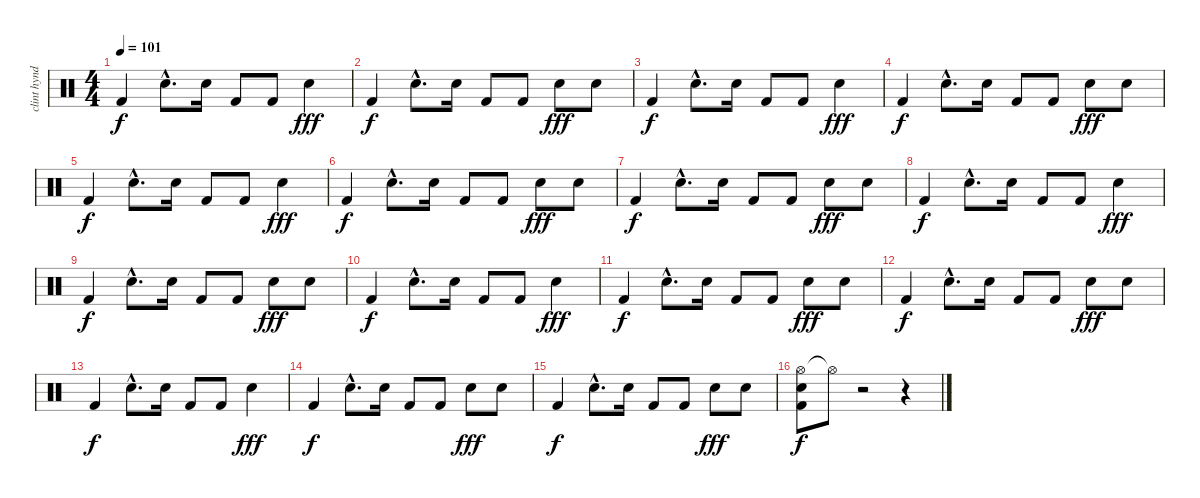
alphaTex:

\track ("clint hyndman" "clint hynd") {instrument percussion}
\staff {score}
\articulation defaults
\ts (4 4)
\tempo 101
\clef neutral
\ks c "Kick (hit) 2".4{dy f} "Electric Snare (hit)"{hac}.8{d} "Electric Snare (hit)".16 "Kick (hit) 2".8 "Kick (hit) 2".8 "Electric Snare (hit)".4{dy fff}
|
"Kick (hit) 2".4{dy f} "Electric Snare (hit)"{hac}.8{d} "Electric Snare (hit)".16 "Kick (hit) 2".8 "Kick (hit) 2".8 "Electric Snare (hit)".8{dy fff} "Electric Snare (hit)".8 |
"Kick (hit) 2".4{dy f} "Electric Snare (hit)"{hac}.8{d} "Electric Snare (hit)".16 "Kick (hit) 2".8 "Kick (hit) 2".8 "Electric Snare (hit)".4{dy fff} |
"Kick (hit) 2".4{dy f} "Electric Snare (hit)"{hac}.8{d} "Electric Snare (hit)".16 "Kick (hit) 2".8 "Kick (hit) 2".8 "Electric Snare (hit)".8{dy fff} "Electric Snare (hit)".8 |
"Kick (hit) 2".4{dy f} "Electric Snare (hit)"{hac}.8{d} "Electric Snare (hit)".16 "Kick (hit) 2".8 "Kick (hit) 2".8 "Electric Snare (hit)".4{dy fff} |
"Kick (hit) 2".4{dy f} "Electric Snare (hit)"{hac}.8{d} "Electric Snare (hit)".16 "Kick (hit) 2".8 "Kick (hit) 2".8 "Electric Snare (hit)".8{dy fff} "Electric Snare (hit)".8 |
"Kick (hit) 2".4{dy f} "Electric Snare (hit)"{hac}.8{d} "Electric Snare (hit)".16 "Kick (hit) 2".8 "Kick (hit) 2".8 "Electric Snare (hit)".8{dy fff} "Electric Snare (hit)".8 |
"Kick (hit) 2".4{dy f} "Electric Snare (hit)"{hac}.8{d} "Electric Snare (hit)".16 "Kick (hit) 2".8 "Kick (hit) 2".8 "Electric Snare (hit)".4{dy fff} |
"Kick (hit) 2".4{dy f} "Electric Snare (hit)"{hac}.8{d} "Electric Snare (hit)".16 "Kick (hit) 2".8 "Kick (hit) 2".8 "Electric Snare (hit)".8{dy fff} "Electric Snare (hit)".8 |
"Kick (hit) 2".4{dy f} "Electric Snare (hit)"{hac}.8{d} "Electric Snare (hit)".16 "Kick (hit) 2".8 "Kick (hit) 2".8 "Electric Snare (hit)".4{dy fff} |
"Kick (hit) 2".4{dy f} "Electric Snare (hit)"{hac}.8{d} "Electric Snare (hit)".16 "Kick (hit) 2".8 "Kick (hit) 2".8 "Electric Snare (hit)".8{dy fff} "Electric Snare (hit)".8 |
"Kick (hit) 2".4{dy f} "Electric Snare (hit)"{hac}.8{d} "Electric Snare (hit)".16 "Kick (hit) 2".8 "Kick (hit) 2".8 "Electric Snare (hit)".8{dy fff} "Electric Snare (hit)".8 |
"Kick (hit) 2".4{dy f} "Electric Snare (hit)"{hac}.8{d} "Electric Snare (hit)".16 "Kick (hit) 2".8 "Kick (hit) 2".8 "Electric Snare (hit)".4{dy fff} |
"Kick (hit) 2".4{dy f} "Electric Snare (hit)"{hac}.8{d} "Electric Snare (hit)".16 "Kick (hit) 2".8 "Kick (hit) 2".8 "Electric Snare (hit)".8{dy fff} "Electric Snare (hit)".8 |
"Kick (hit) 2".4{dy f} "Electric Snare (hit)"{hac}.8{d} "Electric Snare (hit)".16 "Kick (hit) 2".8 "Kick (hit) 2".8 "Electric Snare (hit)".8{dy fff} "Electric Snare (hit)".8 |
("Hi-Hat (open)" "Electric Snare (hit)" "Kick (hit) 2").8{dy f} "Hi-Hat (open)"{t}.8 r.2 r.4
